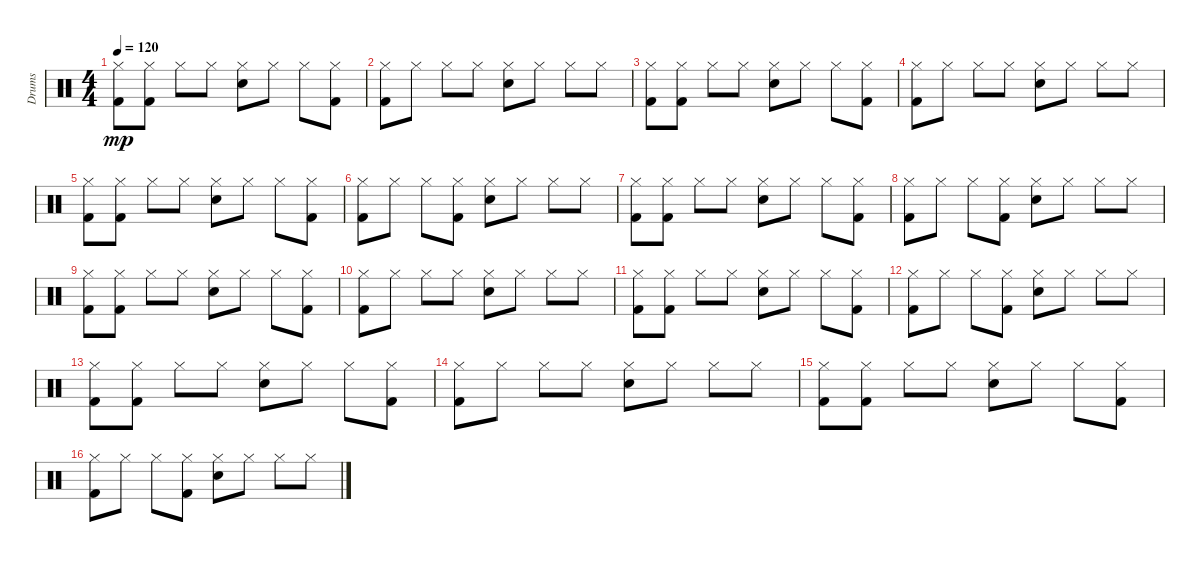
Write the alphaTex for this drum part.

\track ("Drums" "Drums") {instrument percussion}
\staff {score}
\articulation defaults
\ts (4 4)
\tempo 120
\clef neutral
\ks c
("Hi-Hat (closed)" "Kick (hit) 2").8{dy mp} ("Hi-Hat (closed)" "Kick (hit) 2").8 "Hi-Hat (closed)".8 "Hi-Hat (closed)".8 ("Hi-Hat (closed)" "Snare (hit) 2").8 "Hi-Hat (closed)".8 "Hi-Hat (closed)".8 ("Hi-Hat (closed)" "Kick (hit) 2").8 |
("Hi-Hat (closed)" "Kick (hit) 2").8 "Hi-Hat (closed)".8 "Hi-Hat (closed)".8 "Hi-Hat (closed)".8 ("Hi-Hat (closed)" "Snare (hit) 2").8 "Hi-Hat (closed)".8 "Hi-Hat (closed)".8 "Hi-Hat (closed)".8 |
("Hi-Hat (closed)" "Kick (hit) 2").8 ("Hi-Hat (closed)" "Kick (hit) 2").8 "Hi-Hat (closed)".8 "Hi-Hat (closed)".8 ("Hi-Hat (closed)" "Snare (hit) 2").8 "Hi-Hat (closed)".8 "Hi-Hat (closed)".8 ("Hi-Hat (closed)" "Kick (hit) 2").8 |
("Hi-Hat (closed)" "Kick (hit) 2").8 "Hi-Hat (closed)".8 "Hi-Hat (closed)".8 "Hi-Hat (closed)".8 ("Hi-Hat (closed)" "Snare (hit) 2").8 "Hi-Hat (closed)".8 "Hi-Hat (closed)".8 "Hi-Hat (closed)".8 |
("Hi-Hat (closed)" "Kick (hit) 2").8 ("Hi-Hat (closed)" "Kick (hit) 2").8 "Hi-Hat (closed)".8 "Hi-Hat (closed)".8 ("Hi-Hat (closed)" "Snare (hit) 2").8 "Hi-Hat (closed)".8 "Hi-Hat (closed)".8 ("Hi-Hat (closed)" "Kick (hit) 2").8 |
("Hi-Hat (closed)" "Kick (hit) 2").8 "Hi-Hat (closed)".8 "Hi-Hat (closed)".8 ("Hi-Hat (closed)" "Kick (hit) 2").8 ("Hi-Hat (closed)" "Snare (hit) 2").8 "Hi-Hat (closed)".8 "Hi-Hat (closed)".8 "Hi-Hat (closed)".8 |
("Hi-Hat (closed)" "Kick (hit) 2").8 ("Hi-Hat (closed)" "Kick (hit) 2").8 "Hi-Hat (closed)".8 "Hi-Hat (closed)".8 ("Hi-Hat (closed)" "Snare (hit) 2").8 "Hi-Hat (closed)".8 "Hi-Hat (closed)".8 ("Hi-Hat (closed)" "Kick (hit) 2").8 |
("Hi-Hat (closed)" "Kick (hit) 2").8 "Hi-Hat (closed)".8 "Hi-Hat (closed)".8 ("Hi-Hat (closed)" "Kick (hit) 2").8 ("Hi-Hat (closed)" "Snare (hit) 2").8 "Hi-Hat (closed)".8 "Hi-Hat (closed)".8 "Hi-Hat (closed)".8 |
("Hi-Hat (closed)" "Kick (hit) 2").8 ("Hi-Hat (closed)" "Kick (hit) 2").8 "Hi-Hat (closed)".8 "Hi-Hat (closed)".8 ("Hi-Hat (closed)" "Snare (hit) 2").8 "Hi-Hat (closed)".8 "Hi-Hat (closed)".8 ("Hi-Hat (closed)" "Kick (hit) 2").8 |
("Hi-Hat (closed)" "Kick (hit) 2").8 "Hi-Hat (closed)".8 "Hi-Hat (closed)".8 "Hi-Hat (closed)".8 ("Hi-Hat (closed)" "Snare (hit) 2").8 "Hi-Hat (closed)".8 "Hi-Hat (closed)".8 "Hi-Hat (closed)".8 |
("Hi-Hat (closed)" "Kick (hit) 2").8 ("Hi-Hat (closed)" "Kick (hit) 2").8 "Hi-Hat (closed)".8 "Hi-Hat (closed)".8 ("Hi-Hat (closed)" "Snare (hit) 2").8 "Hi-Hat (closed)".8 "Hi-Hat (closed)".8 ("Hi-Hat (closed)" "Kick (hit) 2").8 |
("Hi-Hat (closed)" "Kick (hit) 2").8 "Hi-Hat (closed)".8 "Hi-Hat (closed)".8 ("Hi-Hat (closed)" "Kick (hit) 2").8 ("Hi-Hat (closed)" "Snare (hit) 2").8 "Hi-Hat (closed)".8 "Hi-Hat (closed)".8 "Hi-Hat (closed)".8 |
("Hi-Hat (closed)" "Kick (hit) 2").8 ("Hi-Hat (closed)" "Kick (hit) 2").8 "Hi-Hat (closed)".8 "Hi-Hat (closed)".8 ("Hi-Hat (closed)" "Snare (hit) 2").8 "Hi-Hat (closed)".8 "Hi-Hat (closed)".8 ("Hi-Hat (closed)" "Kick (hit) 2").8 |
("Hi-Hat (closed)" "Kick (hit) 2").8 "Hi-Hat (closed)".8 "Hi-Hat (closed)".8 "Hi-Hat (closed)".8 ("Hi-Hat (closed)" "Snare (hit) 2").8 "Hi-Hat (closed)".8 "Hi-Hat (closed)".8 "Hi-Hat (closed)".8 |
("Hi-Hat (closed)" "Kick (hit) 2").8 ("Hi-Hat (closed)" "Kick (hit) 2").8 "Hi-Hat (closed)".8 "Hi-Hat (closed)".8 ("Hi-Hat (closed)" "Snare (hit) 2").8 "Hi-Hat (closed)".8 "Hi-Hat (closed)".8 ("Hi-Hat (closed)" "Kick (hit) 2").8 |
("Hi-Hat (closed)" "Kick (hit) 2").8 "Hi-Hat (closed)".8 "Hi-Hat (closed)".8 ("Hi-Hat (closed)" "Kick (hit) 2").8 ("Hi-Hat (closed)" "Snare (hit) 2").8 "Hi-Hat (closed)".8 "Hi-Hat (closed)".8 "Hi-Hat (closed)".8
